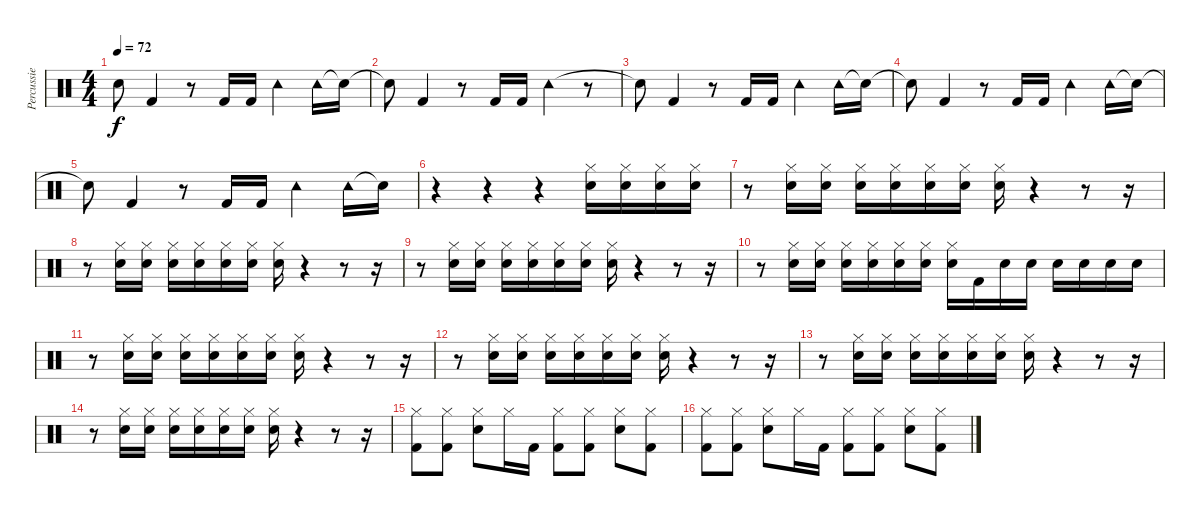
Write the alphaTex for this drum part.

\track ("Percussie" "Percussie") {instrument percussion}
\staff {score}
\articulation defaults
\ts (4 4)
\tempo 72
\clef neutral
\ks c "Snare (hit)"{t}.8{dy f} "Kick (hit) 2".4
r.8 "Kick (hit) 2".16 "Kick (hit) 2".16 "Tambourine (hit)".4 "Tambourine (hit)".16 "Snare (hit)"{t}.16 |
"Snare (hit)"{t}.8 "Kick (hit) 2".4 r.8 "Kick (hit) 2".16 "Kick (hit) 2".16 "Tambourine (hit)".4 r.8 |
"Snare (hit)"{t}.8 "Kick (hit) 2".4 r.8 "Kick (hit) 2".16 "Kick (hit) 2".16 "Tambourine (hit)".4 "Tambourine (hit)".16 "Snare (hit)"{t}.16 |
"Snare (hit)"{t}.8 "Kick (hit) 2".4 r.8 "Kick (hit) 2".16 "Kick (hit) 2".16 "Tambourine (hit)".4 "Tambourine (hit)".16 "Snare (hit)"{t}.16 |
"Snare (hit)"{t}.8 "Kick (hit) 2".4 r.8 "Kick (hit) 2".16 "Kick (hit) 2".16 "Tambourine (hit)".4 "Tambourine (hit)".16 "Snare (hit)"{t}.16 |
r.4 r.4 r.4 ("Hi-Hat (closed)" "Electric Snare (hit)").16 ("Hi-Hat (closed)" "Electric Snare (hit)").16 ("Hi-Hat (closed)" "Electric Snare (hit)").16 ("Hi-Hat (closed)" "Electric Snare (hit)").16 |
r.8 ("Hi-Hat (closed)" "Electric Snare (hit)").16 ("Hi-Hat (closed)" "Electric Snare (hit)").16 ("Hi-Hat (closed)" "Electric Snare (hit)").16 ("Hi-Hat (closed)" "Electric Snare (hit)").16 ("Hi-Hat (closed)" "Electric Snare (hit)").16 ("Hi-Hat (closed)" "Electric Snare (hit)").16 ("Hi-Hat (closed)" "Electric Snare (hit)").16 r.4 r.8 r.16 |
r.8 ("Hi-Hat (closed)" "Electric Snare (hit)").16 ("Hi-Hat (closed)" "Electric Snare (hit)").16 ("Hi-Hat (closed)" "Electric Snare (hit)").16 ("Hi-Hat (closed)" "Electric Snare (hit)").16 ("Hi-Hat (closed)" "Electric Snare (hit)").16 ("Hi-Hat (closed)" "Electric Snare (hit)").16 ("Hi-Hat (closed)" "Electric Snare (hit)").16 r.4 r.8 r.16 |
r.8 ("Hi-Hat (closed)" "Electric Snare (hit)").16 ("Hi-Hat (closed)" "Electric Snare (hit)").16 ("Hi-Hat (closed)" "Electric Snare (hit)").16 ("Hi-Hat (closed)" "Electric Snare (hit)").16 ("Hi-Hat (closed)" "Electric Snare (hit)").16 ("Hi-Hat (closed)" "Electric Snare (hit)").16 ("Hi-Hat (closed)" "Electric Snare (hit)").16 r.4 r.8 r.16 |
r.8 ("Hi-Hat (closed)" "Electric Snare (hit)").16 ("Hi-Hat (closed)" "Electric Snare (hit)").16 ("Hi-Hat (closed)" "Electric Snare (hit)").16 ("Hi-Hat (closed)" "Electric Snare (hit)").16 ("Hi-Hat (closed)" "Electric Snare (hit)").16 ("Hi-Hat (closed)" "Electric Snare (hit)").16 ("Hi-Hat (closed)" "Electric Snare (hit)").16 "Kick (hit) 2".16 "Electric Snare (hit)".16 "Electric Snare (hit)".16 "Electric Snare (hit)".16 "Electric Snare (hit)".16 "Electric Snare (hit)".16 "Electric Snare (hit)".16 |
r.8 ("Hi-Hat (closed)" "Electric Snare (hit)").16 ("Hi-Hat (closed)" "Electric Snare (hit)").16 ("Hi-Hat (closed)" "Electric Snare (hit)").16 ("Hi-Hat (closed)" "Electric Snare (hit)").16 ("Hi-Hat (closed)" "Electric Snare (hit)").16 ("Hi-Hat (closed)" "Electric Snare (hit)").16 ("Hi-Hat (closed)" "Electric Snare (hit)").16 r.4 r.8 r.16 |
r.8 ("Hi-Hat (closed)" "Electric Snare (hit)").16 ("Hi-Hat (closed)" "Electric Snare (hit)").16 ("Hi-Hat (closed)" "Electric Snare (hit)").16 ("Hi-Hat (closed)" "Electric Snare (hit)").16 ("Hi-Hat (closed)" "Electric Snare (hit)").16 ("Hi-Hat (closed)" "Electric Snare (hit)").16 ("Hi-Hat (closed)" "Electric Snare (hit)").16 r.4 r.8 r.16 |
r.8 ("Hi-Hat (closed)" "Electric Snare (hit)").16 ("Hi-Hat (closed)" "Electric Snare (hit)").16 ("Hi-Hat (closed)" "Electric Snare (hit)").16 ("Hi-Hat (closed)" "Electric Snare (hit)").16 ("Hi-Hat (closed)" "Electric Snare (hit)").16 ("Hi-Hat (closed)" "Electric Snare (hit)").16 ("Hi-Hat (closed)" "Electric Snare (hit)").16 r.4 r.8 r.16 |
r.8 ("Hi-Hat (closed)" "Electric Snare (hit)").16 ("Hi-Hat (closed)" "Electric Snare (hit)").16 ("Hi-Hat (closed)" "Electric Snare (hit)").16 ("Hi-Hat (closed)" "Electric Snare (hit)").16 ("Hi-Hat (closed)" "Electric Snare (hit)").16 ("Hi-Hat (closed)" "Electric Snare (hit)").16 ("Hi-Hat (closed)" "Electric Snare (hit)").16 r.4 r.8 r.16 |
("Hi-Hat (closed)" "Kick (hit) 2").8 ("Hi-Hat (closed)" "Kick (hit) 2").8 ("Hi-Hat (closed)" "Electric Snare (hit)").8 "Hi-Hat (closed)".16 "Kick (hit) 2".16 ("Hi-Hat (closed)" "Kick (hit) 2").8 ("Hi-Hat (closed)" "Kick (hit) 2").8 ("Hi-Hat (closed)" "Electric Snare (hit)").8 ("Hi-Hat (closed)" "Kick (hit) 2").8 |
("Hi-Hat (closed)" "Kick (hit) 2").8 ("Hi-Hat (closed)" "Kick (hit) 2").8 ("Hi-Hat (closed)" "Electric Snare (hit)").8 "Hi-Hat (closed)".16 "Kick (hit) 2".16 ("Hi-Hat (closed)" "Kick (hit) 2").8 ("Hi-Hat (closed)" "Kick (hit) 2").8 ("Hi-Hat (closed)" "Electric Snare (hit)").8 ("Hi-Hat (closed)" "Kick (hit) 2").8
